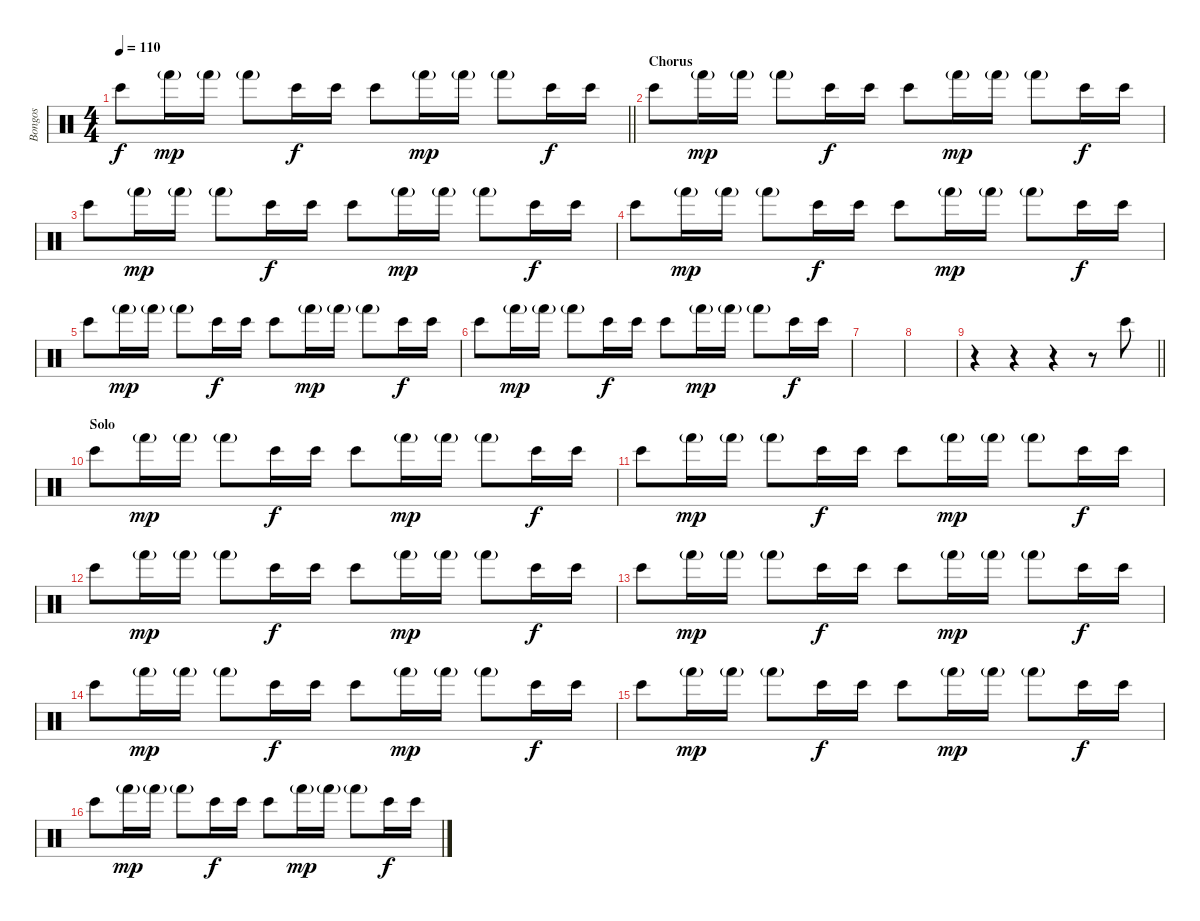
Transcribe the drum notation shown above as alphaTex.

\track ("Bongos" "Bongos") {instrument percussion}
\staff {score}
\articulation defaults
\ts (4 4)
\tempo 110
\clef neutral
\barLineRight lightlight
\ks c "Bongo High (hit)".8{dy f} "Hand (hit)"{g}.16{dy mp} "Hand (hit)"{g}.16 "Hand (hit)"{g}.8 "Bongo High (hit)".16{dy f} "Bongo High (hit)".16 "Bongo High (hit)".8 "Hand (hit)"{g}.16{dy mp} "Hand (hit)"{g}.16 "Hand (hit)"{g}.8 "Bongo High (hit)".16{dy f} "Bongo High (hit)".16
|
\section ("" "Chorus")
"Bongo High (hit)".8 "Hand (hit)"{g}.16{dy mp} "Hand (hit)"{g}.16 "Hand (hit)"{g}.8 "Bongo High (hit)".16{dy f} "Bongo High (hit)".16 "Bongo High (hit)".8 "Hand (hit)"{g}.16{dy mp} "Hand (hit)"{g}.16 "Hand (hit)"{g}.8 "Bongo High (hit)".16{dy f} "Bongo High (hit)".16 |
"Bongo High (hit)".8 "Hand (hit)"{g}.16{dy mp} "Hand (hit)"{g}.16 "Hand (hit)"{g}.8 "Bongo High (hit)".16{dy f} "Bongo High (hit)".16 "Bongo High (hit)".8 "Hand (hit)"{g}.16{dy mp} "Hand (hit)"{g}.16 "Hand (hit)"{g}.8 "Bongo High (hit)".16{dy f} "Bongo High (hit)".16 |
"Bongo High (hit)".8 "Hand (hit)"{g}.16{dy mp} "Hand (hit)"{g}.16 "Hand (hit)"{g}.8 "Bongo High (hit)".16{dy f} "Bongo High (hit)".16 "Bongo High (hit)".8 "Hand (hit)"{g}.16{dy mp} "Hand (hit)"{g}.16 "Hand (hit)"{g}.8 "Bongo High (hit)".16{dy f} "Bongo High (hit)".16 |
"Bongo High (hit)".8 "Hand (hit)"{g}.16{dy mp} "Hand (hit)"{g}.16 "Hand (hit)"{g}.8 "Bongo High (hit)".16{dy f} "Bongo High (hit)".16 "Bongo High (hit)".8 "Hand (hit)"{g}.16{dy mp} "Hand (hit)"{g}.16 "Hand (hit)"{g}.8 "Bongo High (hit)".16{dy f} "Bongo High (hit)".16 |
"Bongo High (hit)".8 "Hand (hit)"{g}.16{dy mp} "Hand (hit)"{g}.16 "Hand (hit)"{g}.8 "Bongo High (hit)".16{dy f} "Bongo High (hit)".16 "Bongo High (hit)".8 "Hand (hit)"{g}.16{dy mp} "Hand (hit)"{g}.16 "Hand (hit)"{g}.8 "Bongo High (hit)".16{dy f} "Bongo High (hit)".16 |
|
|
\barLineRight lightlight
r.4 r.4 r.4 r.8 "Bongo High (hit)".8 |
\section ("" "Solo")
"Bongo High (hit)".8 "Hand (hit)"{g}.16{dy mp} "Hand (hit)"{g}.16 "Hand (hit)"{g}.8 "Bongo High (hit)".16{dy f} "Bongo High (hit)".16 "Bongo High (hit)".8 "Hand (hit)"{g}.16{dy mp} "Hand (hit)"{g}.16 "Hand (hit)"{g}.8 "Bongo High (hit)".16{dy f} "Bongo High (hit)".16 |
"Bongo High (hit)".8 "Hand (hit)"{g}.16{dy mp} "Hand (hit)"{g}.16 "Hand (hit)"{g}.8 "Bongo High (hit)".16{dy f} "Bongo High (hit)".16 "Bongo High (hit)".8 "Hand (hit)"{g}.16{dy mp} "Hand (hit)"{g}.16 "Hand (hit)"{g}.8 "Bongo High (hit)".16{dy f} "Bongo High (hit)".16 |
"Bongo High (hit)".8 "Hand (hit)"{g}.16{dy mp} "Hand (hit)"{g}.16 "Hand (hit)"{g}.8 "Bongo High (hit)".16{dy f} "Bongo High (hit)".16 "Bongo High (hit)".8 "Hand (hit)"{g}.16{dy mp} "Hand (hit)"{g}.16 "Hand (hit)"{g}.8 "Bongo High (hit)".16{dy f} "Bongo High (hit)".16 |
"Bongo High (hit)".8 "Hand (hit)"{g}.16{dy mp} "Hand (hit)"{g}.16 "Hand (hit)"{g}.8 "Bongo High (hit)".16{dy f} "Bongo High (hit)".16 "Bongo High (hit)".8 "Hand (hit)"{g}.16{dy mp} "Hand (hit)"{g}.16 "Hand (hit)"{g}.8 "Bongo High (hit)".16{dy f} "Bongo High (hit)".16 |
"Bongo High (hit)".8 "Hand (hit)"{g}.16{dy mp} "Hand (hit)"{g}.16 "Hand (hit)"{g}.8 "Bongo High (hit)".16{dy f} "Bongo High (hit)".16 "Bongo High (hit)".8 "Hand (hit)"{g}.16{dy mp} "Hand (hit)"{g}.16 "Hand (hit)"{g}.8 "Bongo High (hit)".16{dy f} "Bongo High (hit)".16 |
"Bongo High (hit)".8 "Hand (hit)"{g}.16{dy mp} "Hand (hit)"{g}.16 "Hand (hit)"{g}.8 "Bongo High (hit)".16{dy f} "Bongo High (hit)".16 "Bongo High (hit)".8 "Hand (hit)"{g}.16{dy mp} "Hand (hit)"{g}.16 "Hand (hit)"{g}.8 "Bongo High (hit)".16{dy f} "Bongo High (hit)".16 |
"Bongo High (hit)".8 "Hand (hit)"{g}.16{dy mp} "Hand (hit)"{g}.16 "Hand (hit)"{g}.8 "Bongo High (hit)".16{dy f} "Bongo High (hit)".16 "Bongo High (hit)".8 "Hand (hit)"{g}.16{dy mp} "Hand (hit)"{g}.16 "Hand (hit)"{g}.8 "Bongo High (hit)".16{dy f} "Bongo High (hit)".16
